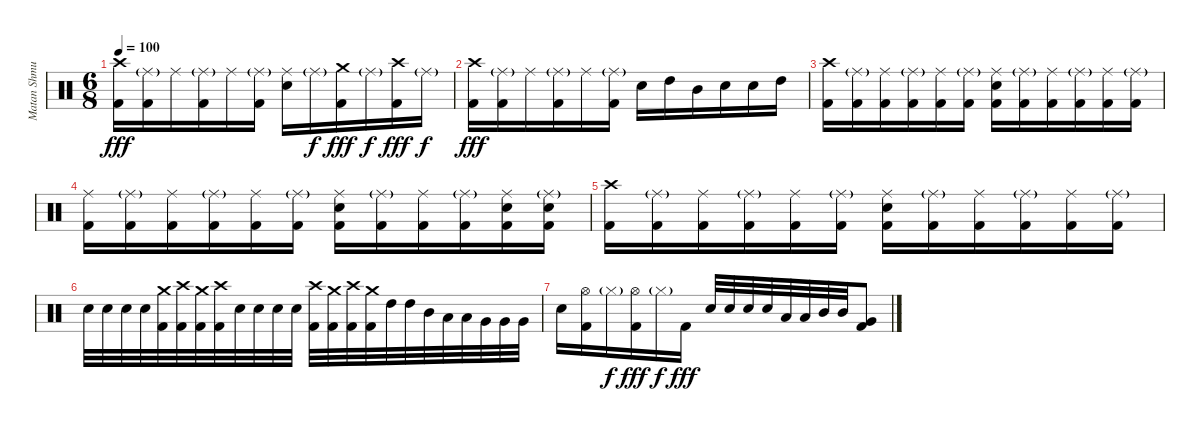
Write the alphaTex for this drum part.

\track ("Matan Shmuely" "Matan Shmu") {instrument percussion}
\staff {score}
\articulation defaults
\ts (6 8)
\tempo 100
\clef neutral
\ks c
("Kick (hit) 2" "Crash high (hit)").16{dy fff} ("Kick (hit) 2" "Ride (middle)"{g}).16 "Ride (middle)".16 ("Kick (hit) 2" "Ride (middle)"{g}).16 "Ride (middle)".16 ("Kick (hit) 2" "Ride (middle)"{g}).16 ("Electric Snare (hit)" "Ride (middle)").16 "Ride (middle)"{g}.16{dy f} ("Kick (hit) 2" "Crash medium (hit)").16{dy fff} "Ride (middle)"{g}.16{dy f} ("Kick (hit) 2" "Crash high (hit)").16{dy fff} "Ride (middle)"{g}.16{dy f} |
("Kick (hit) 2" "Crash high (hit)").16{dy fff} ("Kick (hit) 2" "Ride (middle)"{g}).16 "Ride (middle)".16 ("Kick (hit) 2" "Ride (middle)"{g}).16 "Ride (middle)".16 ("Kick (hit) 2" "Ride (middle)"{g}).16 "Electric Snare (hit)".16 "High Tom (hit)".16 "Mid Tom (hit)".16 "Electric Snare (hit)".16 "Electric Snare (hit)".16 "High Tom (hit)".16 |
("Kick (hit) 2" "Crash high (hit)").16 ("Kick (hit) 2" "Ride (middle)"{g}).16 ("Kick (hit) 2" "Ride (middle)").16 ("Kick (hit) 2" "Ride (middle)"{g}).16 ("Kick (hit) 2" "Ride (middle)").16 ("Kick (hit) 2" "Ride (middle)"{g}).16 ("Kick (hit) 2" "Electric Snare (hit)" "Ride (middle)").16 ("Kick (hit) 2" "Ride (middle)"{g}).16 ("Kick (hit) 2" "Ride (middle)").16 ("Kick (hit) 2" "Ride (middle)"{g}).16 ("Kick (hit) 2" "Ride (middle)").16 ("Kick (hit) 2" "Ride (middle)"{g}).16 |
("Kick (hit) 2" "Ride (middle)").16 ("Kick (hit) 2" "Ride (middle)"{g}).16 ("Kick (hit) 2" "Ride (middle)").16 ("Kick (hit) 2" "Ride (middle)"{g}).16 ("Kick (hit) 2" "Ride (middle)").16 ("Kick (hit) 2" "Ride (middle)"{g}).16 ("Kick (hit) 2" "Electric Snare (hit)" "Ride (middle)").16 ("Kick (hit) 2" "Ride (middle)"{g}).16 ("Kick (hit) 2" "Ride (middle)").16 ("Kick (hit) 2" "Ride (middle)"{g}).16 ("Kick (hit) 2" "Electric Snare (hit)" "Ride (middle)").16 ("Kick (hit) 2" "Electric Snare (hit)" "Ride (middle)"{g}).16 |
("Kick (hit) 2" "Crash high (hit)").16 ("Kick (hit) 2" "Ride (middle)"{g}).16 ("Kick (hit) 2" "Ride (middle)").16 ("Kick (hit) 2" "Ride (middle)"{g}).16 ("Kick (hit) 2" "Ride (middle)").16 ("Kick (hit) 2" "Ride (middle)"{g}).16 ("Kick (hit) 2" "Electric Snare (hit)" "Ride (middle)").16 ("Kick (hit) 2" "Ride (middle)"{g}).16 ("Kick (hit) 2" "Ride (middle)").16 ("Kick (hit) 2" "Ride (middle)"{g}).16 ("Kick (hit) 2" "Ride (middle)").16 ("Kick (hit) 2" "Ride (middle)"{g}).16 |
"Electric Snare (hit)".32 "Electric Snare (hit)".32 "Electric Snare (hit)".32 "Electric Snare (hit)".32 ("Kick (hit) 2" "Crash medium (hit)").32 ("Kick (hit) 2" "Crash high (hit)").32 ("Kick (hit) 2" "Crash medium (hit)").32 ("Kick (hit) 2" "Crash high (hit)").32 "Electric Snare (hit)".32 "Electric Snare (hit)".32 "Electric Snare (hit)".32 "Electric Snare (hit)".32 ("Kick (hit) 2" "Crash high (hit)").32 ("Kick (hit) 2" "Crash medium (hit)").32 ("Kick (hit) 2" "Crash high (hit)").32 ("Kick (hit) 2" "Crash medium (hit)").32 "High Tom (hit)".32 "High Tom (hit)".32 "Mid Tom (hit)".32 "Low Tom (hit)".32 "Low Tom (hit)".32 "Very Low Tom (hit)".32 "Very Low Tom (hit)".32 "Very Low Tom (hit)".32 |
"Electric Snare (hit)".16 ("Kick (hit) 2" "Hi-Hat (open)").16 "Hi-Hat (closed)"{g}.16{dy f} ("Kick (hit) 2" "Hi-Hat (open)").16{dy fff} "Hi-Hat (closed)"{g}.16{dy f} "Kick (hit) 2".16{dy fff} "Electric Snare (hit)".32 "Electric Snare (hit)".32 "Electric Snare (hit)".32 "Electric Snare (hit)".32 "Low Tom (hit)".32 "Low Tom (hit)".32 "Mid Tom (hit)".32 "Mid Tom (hit)".32 ("Kick (hit) 2" "Very Low Tom (hit)").8
